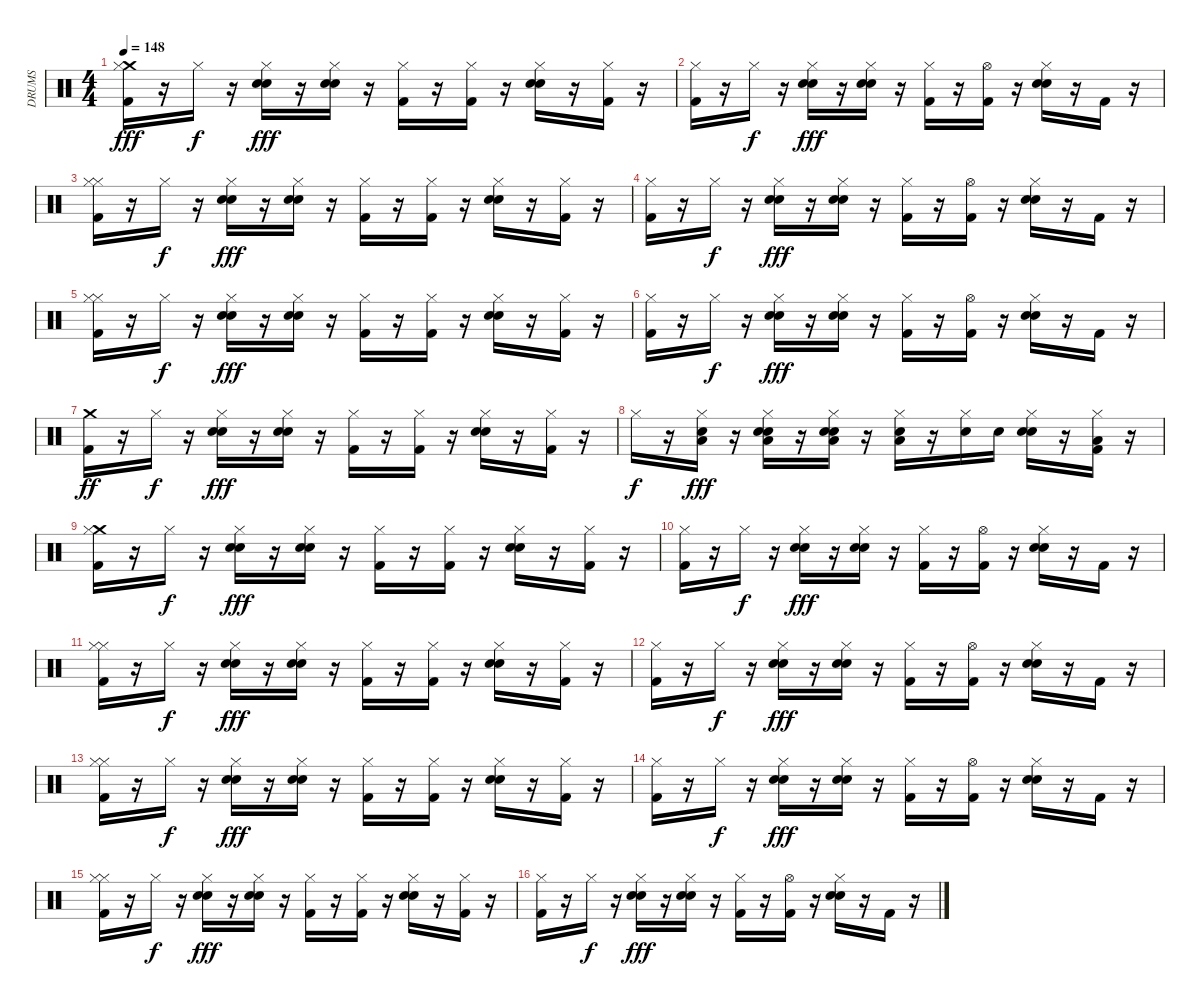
\track ("DRUMS" "DRUMS") {instrument percussion}
\staff {score}
\articulation defaults
\ts (4 4)
\tempo 148
\clef neutral
\ks c
("Crash medium (hit)" "Kick (hit) 2" "Hi-Hat (closed)").16{dy fff} r.16 "Hi-Hat (closed)".16{dy f} r.16 ("Hi-Hat (closed)" "Hand Clap (hit)" "Snare (hit) 2").16{dy fff} r.16 ("Snare (hit) 2" "Hand Clap (hit)" "Hi-Hat (closed)").16 r.16 ("Hi-Hat (closed)" "Kick (hit) 2").16 r.16 ("Hi-Hat (closed)" "Kick (hit) 2").16 r.16 ("Hi-Hat (closed)" "Hand Clap (hit)" "Snare (hit) 2").16 r.16 ("Hi-Hat (closed)" "Kick (hit) 2").16 r.16 |
("Hi-Hat (closed)" "Kick (hit) 2").16 r.16 "Hi-Hat (closed)".16{dy f} r.16 ("Hi-Hat (closed)" "Hand Clap (hit)" "Snare (hit) 2").16{dy fff} r.16 ("Hi-Hat (closed)" "Hand Clap (hit)" "Snare (hit) 2").16 r.16 ("Hi-Hat (closed)" "Kick (hit) 2").16 r.16 ("Hi-Hat (open)" "Kick (hit) 2").16 r.16 ("Hand Clap (hit)" "Snare (hit) 2" "Hi-Hat (closed)").16 r.16 "Kick (hit) 2".16 r.16 |
("Hi-Hat (closed)" "Kick (hit) 2" "Hi-Hat (closed)").16 r.16 "Hi-Hat (closed)".16{dy f} r.16 ("Hi-Hat (closed)" "Hand Clap (hit)" "Snare (hit) 2").16{dy fff} r.16 ("Snare (hit) 2" "Hand Clap (hit)" "Hi-Hat (closed)").16 r.16 ("Hi-Hat (closed)" "Kick (hit) 2").16 r.16 ("Hi-Hat (closed)" "Kick (hit) 2").16 r.16 ("Hi-Hat (closed)" "Hand Clap (hit)" "Snare (hit) 2").16 r.16 ("Hi-Hat (closed)" "Kick (hit) 2").16 r.16 |
("Hi-Hat (closed)" "Kick (hit) 2").16 r.16 "Hi-Hat (closed)".16{dy f} r.16 ("Hi-Hat (closed)" "Hand Clap (hit)" "Snare (hit) 2").16{dy fff} r.16 ("Hi-Hat (closed)" "Hand Clap (hit)" "Snare (hit) 2").16 r.16 ("Hi-Hat (closed)" "Kick (hit) 2").16 r.16 ("Hi-Hat (open)" "Kick (hit) 2").16 r.16 ("Hand Clap (hit)" "Snare (hit) 2" "Hi-Hat (closed)").16 r.16 "Kick (hit) 2".16 r.16 |
("Hi-Hat (closed)" "Kick (hit) 2" "Hi-Hat (closed)").16 r.16 "Hi-Hat (closed)".16{dy f} r.16 ("Hi-Hat (closed)" "Hand Clap (hit)" "Snare (hit) 2").16{dy fff} r.16 ("Snare (hit) 2" "Hand Clap (hit)" "Hi-Hat (closed)").16 r.16 ("Hi-Hat (closed)" "Kick (hit) 2").16 r.16 ("Hi-Hat (closed)" "Kick (hit) 2").16 r.16 ("Hi-Hat (closed)" "Hand Clap (hit)" "Snare (hit) 2").16 r.16 ("Hi-Hat (closed)" "Kick (hit) 2").16 r.16 |
("Hi-Hat (closed)" "Kick (hit) 2").16 r.16 "Hi-Hat (closed)".16{dy f} r.16 ("Hi-Hat (closed)" "Hand Clap (hit)" "Snare (hit) 2").16{dy fff} r.16 ("Hi-Hat (closed)" "Hand Clap (hit)" "Snare (hit) 2").16 r.16 ("Hi-Hat (closed)" "Kick (hit) 2").16 r.16 ("Hi-Hat (open)" "Kick (hit) 2").16 r.16 ("Hand Clap (hit)" "Snare (hit) 2" "Hi-Hat (closed)").16 r.16 "Kick (hit) 2".16 r.16 |
("Kick (hit) 2" "Crash medium (hit)").16{dy ff} r.16 "Hi-Hat (closed)".16{dy f} r.16 ("Snare (hit) 2" "Hi-Hat (closed)" "Hand Clap (hit)").16{dy fff} r.16 ("Hi-Hat (closed)" "Snare (hit) 2" "Hand Clap (hit)").16 r.16 ("Hi-Hat (closed)" "Kick (hit) 2").16 r.16 ("Hi-Hat (closed)" "Kick (hit) 2").16 r.16 ("Hi-Hat (closed)" "Snare (hit) 2" "Hand Clap (hit)").16 r.16 ("Hi-Hat (closed)" "Kick (hit) 2").16 r.16 |
"Hi-Hat (closed)".16{dy f} r.16 ("Low Floor Tom (hit)" "Hi-Hat (closed)" "Snare (hit) 2").16{dy fff} r.16 ("Low Floor Tom (hit)" "Hand Clap (hit)" "Hi-Hat (closed)" "Snare (hit) 2").16 r.16 ("Low Floor Tom (hit)" "Hi-Hat (closed)" "Snare (hit) 2" "Hand Clap (hit)").16 r.16 ("Low Floor Tom (hit)" "Hi-Hat (closed)" "Snare (hit) 2").16 r.16 ("Hi-Hat (closed)" "Snare (hit) 2").16 "Snare (hit) 2".16 ("Hi-Hat (closed)" "Snare (hit) 2" "Hand Clap (hit)").16 r.16 ("Hi-Hat (closed)" "Low Floor Tom (hit)" "Kick (hit) 2").16 r.16 |
("Crash medium (hit)" "Kick (hit) 2" "Hi-Hat (closed)").16 r.16 "Hi-Hat (closed)".16{dy f} r.16 ("Hi-Hat (closed)" "Hand Clap (hit)" "Snare (hit) 2").16{dy fff} r.16 ("Snare (hit) 2" "Hand Clap (hit)" "Hi-Hat (closed)").16 r.16 ("Hi-Hat (closed)" "Kick (hit) 2").16 r.16 ("Hi-Hat (closed)" "Kick (hit) 2").16 r.16 ("Hi-Hat (closed)" "Hand Clap (hit)" "Snare (hit) 2").16 r.16 ("Hi-Hat (closed)" "Kick (hit) 2").16 r.16 |
("Hi-Hat (closed)" "Kick (hit) 2").16 r.16 "Hi-Hat (closed)".16{dy f} r.16 ("Hi-Hat (closed)" "Hand Clap (hit)" "Snare (hit) 2").16{dy fff} r.16 ("Hi-Hat (closed)" "Hand Clap (hit)" "Snare (hit) 2").16 r.16 ("Hi-Hat (closed)" "Kick (hit) 2").16 r.16 ("Hi-Hat (open)" "Kick (hit) 2").16 r.16 ("Hand Clap (hit)" "Snare (hit) 2" "Hi-Hat (closed)").16 r.16 "Kick (hit) 2".16 r.16 |
("Hi-Hat (closed)" "Kick (hit) 2" "Hi-Hat (closed)").16 r.16 "Hi-Hat (closed)".16{dy f} r.16 ("Hi-Hat (closed)" "Hand Clap (hit)" "Snare (hit) 2").16{dy fff} r.16 ("Snare (hit) 2" "Hand Clap (hit)" "Hi-Hat (closed)").16 r.16 ("Hi-Hat (closed)" "Kick (hit) 2").16 r.16 ("Hi-Hat (closed)" "Kick (hit) 2").16 r.16 ("Hi-Hat (closed)" "Hand Clap (hit)" "Snare (hit) 2").16 r.16 ("Hi-Hat (closed)" "Kick (hit) 2").16 r.16 |
("Hi-Hat (closed)" "Kick (hit) 2").16 r.16 "Hi-Hat (closed)".16{dy f} r.16 ("Hi-Hat (closed)" "Hand Clap (hit)" "Snare (hit) 2").16{dy fff} r.16 ("Hi-Hat (closed)" "Hand Clap (hit)" "Snare (hit) 2").16 r.16 ("Hi-Hat (closed)" "Kick (hit) 2").16 r.16 ("Hi-Hat (open)" "Kick (hit) 2").16 r.16 ("Hand Clap (hit)" "Snare (hit) 2" "Hi-Hat (closed)").16 r.16 "Kick (hit) 2".16 r.16 |
("Hi-Hat (closed)" "Kick (hit) 2" "Hi-Hat (closed)").16 r.16 "Hi-Hat (closed)".16{dy f} r.16 ("Hi-Hat (closed)" "Hand Clap (hit)" "Snare (hit) 2").16{dy fff} r.16 ("Snare (hit) 2" "Hand Clap (hit)" "Hi-Hat (closed)").16 r.16 ("Hi-Hat (closed)" "Kick (hit) 2").16 r.16 ("Hi-Hat (closed)" "Kick (hit) 2").16 r.16 ("Hi-Hat (closed)" "Hand Clap (hit)" "Snare (hit) 2").16 r.16 ("Hi-Hat (closed)" "Kick (hit) 2").16 r.16 |
("Hi-Hat (closed)" "Kick (hit) 2").16 r.16 "Hi-Hat (closed)".16{dy f} r.16 ("Hi-Hat (closed)" "Hand Clap (hit)" "Snare (hit) 2").16{dy fff} r.16 ("Hi-Hat (closed)" "Hand Clap (hit)" "Snare (hit) 2").16 r.16 ("Hi-Hat (closed)" "Kick (hit) 2").16 r.16 ("Hi-Hat (open)" "Kick (hit) 2").16 r.16 ("Hand Clap (hit)" "Snare (hit) 2" "Hi-Hat (closed)").16 r.16 "Kick (hit) 2".16 r.16 |
("Hi-Hat (closed)" "Kick (hit) 2" "Hi-Hat (closed)").16 r.16 "Hi-Hat (closed)".16{dy f} r.16 ("Hi-Hat (closed)" "Hand Clap (hit)" "Snare (hit) 2").16{dy fff} r.16 ("Snare (hit) 2" "Hand Clap (hit)" "Hi-Hat (closed)").16 r.16 ("Hi-Hat (closed)" "Kick (hit) 2").16 r.16 ("Hi-Hat (closed)" "Kick (hit) 2").16 r.16 ("Hi-Hat (closed)" "Hand Clap (hit)" "Snare (hit) 2").16 r.16 ("Hi-Hat (closed)" "Kick (hit) 2").16 r.16 |
("Hi-Hat (closed)" "Kick (hit) 2").16 r.16 "Hi-Hat (closed)".16{dy f} r.16 ("Hi-Hat (closed)" "Hand Clap (hit)" "Snare (hit) 2").16{dy fff} r.16 ("Hi-Hat (closed)" "Hand Clap (hit)" "Snare (hit) 2").16 r.16 ("Hi-Hat (closed)" "Kick (hit) 2").16 r.16 ("Hi-Hat (open)" "Kick (hit) 2").16 r.16 ("Hand Clap (hit)" "Snare (hit) 2" "Hi-Hat (closed)").16 r.16 "Kick (hit) 2".16 r.16
